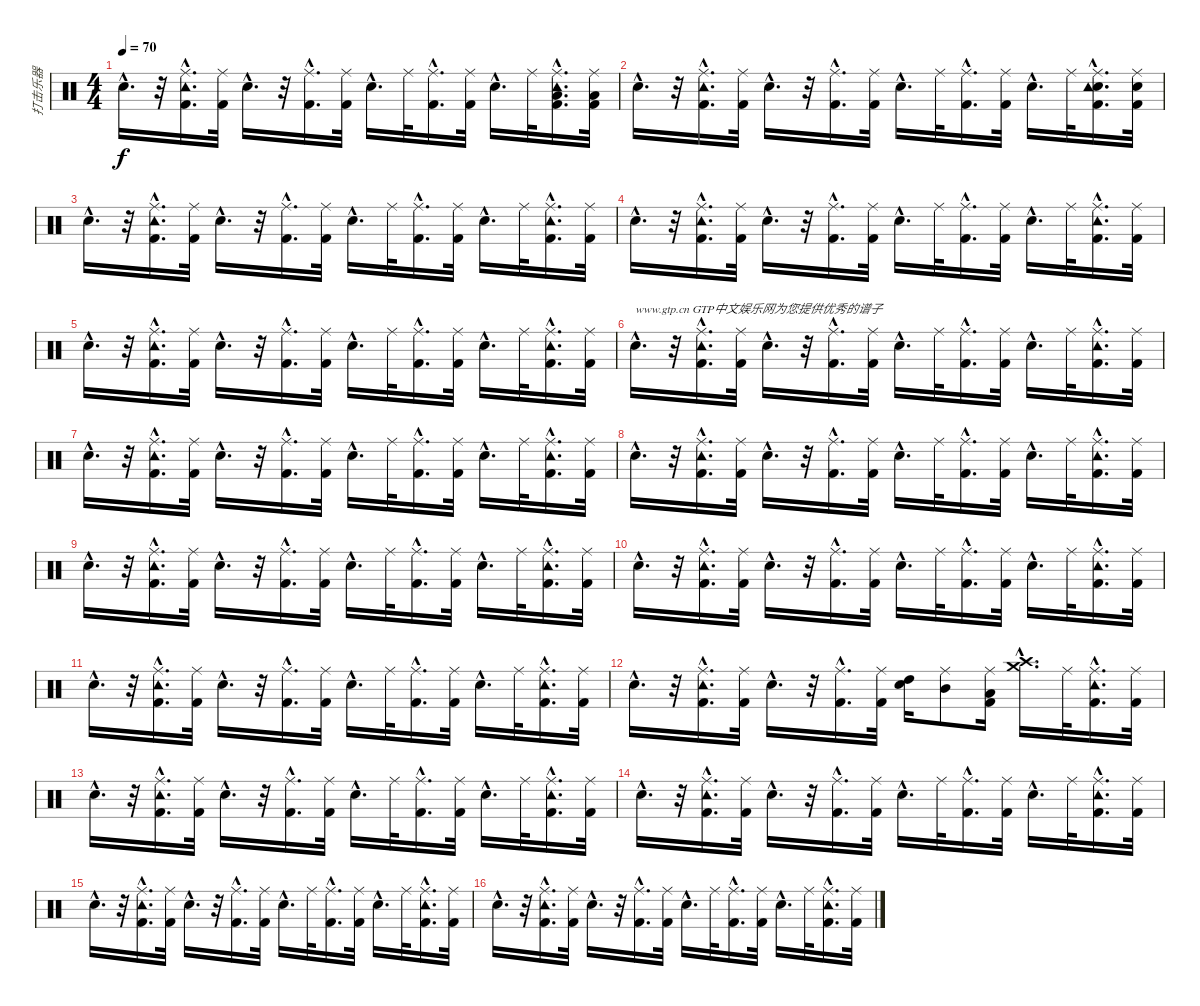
\track ("打击乐器" "打击乐器") {instrument percussion}
\staff {score}
\articulation defaults
\ts (4 4)
\tempo 70
\clef neutral
\ks c "Electric Snare (hit)"{hac}.16{d dy f}
r.32 ("Tambourine (hit)"{hac} "Ride (middle)"{hac} "Kick (hit) 2"{hac}).16{d} ("Ride (middle)" "Kick (hit) 2").32 "Snare (hit) 2"{hac}.16{d} r.32 ("Ride (middle)"{hac} "Kick (hit) 2"{hac}).16{d} ("Ride (middle)" "Kick (hit) 2").32 "Snare (hit) 2"{hac}.16{d} "Ride (middle)".32 ("Ride (middle)"{hac} "Kick (hit) 2"{hac}).16{d} ("Ride (middle)" "Kick (hit) 2").32 "Snare (hit) 2"{hac}.16{d} "Ride (middle)".32 ("Low Floor Tom (hit)"{hac} "Tambourine (hit)"{hac} "Ride (middle)"{hac} "Kick (hit) 2"{hac}).16{d} ("Low Floor Tom (hit)" "Ride (middle)" "Kick (hit) 2").32 |
"Electric Snare (hit)"{hac}.16{d} r.32 ("Tambourine (hit)"{hac} "Ride (middle)"{hac} "Kick (hit) 2"{hac}).16{d} ("Ride (middle)" "Kick (hit) 2").32 "Snare (hit) 2"{hac}.16{d} r.32 ("Ride (middle)"{hac} "Kick (hit) 2"{hac}).16{d} ("Ride (middle)" "Kick (hit) 2").32 "Snare (hit) 2"{hac}.16{d} "Ride (middle)".32 ("Ride (middle)"{hac} "Kick (hit) 2"{hac}).16{d} ("Ride (middle)" "Kick (hit) 2").32 "Snare (hit) 2"{hac}.16{d} "Ride (middle)".32 ("Electric Snare (hit)"{hac} "Tambourine (hit)"{hac} "Ride (middle)"{hac} "Kick (hit) 2"{hac}).16{d} ("Electric Snare (hit)" "Ride (middle)" "Kick (hit) 2").32 |
"Electric Snare (hit)"{hac}.16{d} r.32 ("Tambourine (hit)"{hac} "Ride (middle)"{hac} "Kick (hit) 2"{hac}).16{d} ("Ride (middle)" "Kick (hit) 2").32 "Snare (hit) 2"{hac}.16{d} r.32 ("Ride (middle)"{hac} "Kick (hit) 2"{hac}).16{d} ("Ride (middle)" "Kick (hit) 2").32 "Snare (hit) 2"{hac}.16{d} "Ride (middle)".32 ("Ride (middle)"{hac} "Kick (hit) 2"{hac}).16{d} ("Ride (middle)" "Kick (hit) 2").32 "Snare (hit) 2"{hac}.16{d} "Ride (middle)".32 ("Tambourine (hit)"{hac} "Ride (middle)"{hac} "Kick (hit) 2"{hac}).16{d} ("Ride (middle)" "Kick (hit) 2").32 |
"Electric Snare (hit)"{hac}.16{d} r.32 ("Tambourine (hit)"{hac} "Ride (middle)"{hac} "Kick (hit) 2"{hac}).16{d} ("Ride (middle)" "Kick (hit) 2").32 "Snare (hit) 2"{hac}.16{d} r.32 ("Ride (middle)"{hac} "Kick (hit) 2"{hac}).16{d} ("Ride (middle)" "Kick (hit) 2").32 "Snare (hit) 2"{hac}.16{d} "Ride (middle)".32 ("Ride (middle)"{hac} "Kick (hit) 2"{hac}).16{d} ("Ride (middle)" "Kick (hit) 2").32 "Snare (hit) 2"{hac}.16{d} "Ride (middle)".32 ("Tambourine (hit)"{hac} "Ride (middle)"{hac} "Kick (hit) 2"{hac}).16{d} ("Ride (middle)" "Kick (hit) 2").32 |
"Electric Snare (hit)"{hac}.16{d} r.32 ("Tambourine (hit)"{hac} "Ride (middle)"{hac} "Kick (hit) 2"{hac}).16{d} ("Ride (middle)" "Kick (hit) 2").32 "Snare (hit) 2"{hac}.16{d} r.32 ("Ride (middle)"{hac} "Kick (hit) 2"{hac}).16{d} ("Ride (middle)" "Kick (hit) 2").32 "Snare (hit) 2"{hac}.16{d} "Ride (middle)".32 ("Ride (middle)"{hac} "Kick (hit) 2"{hac}).16{d} ("Ride (middle)" "Kick (hit) 2").32 "Snare (hit) 2"{hac}.16{d} "Ride (middle)".32 ("Tambourine (hit)"{hac} "Ride (middle)"{hac} "Kick (hit) 2"{hac}).16{d} ("Ride (middle)" "Kick (hit) 2").32 |
"Electric Snare (hit)"{hac}.16{d txt "www.gtp.cn GTP中文娱乐网为您提供优秀的谱子"} r.32 ("Tambourine (hit)"{hac} "Ride (middle)"{hac} "Kick (hit) 2"{hac}).16{d} ("Ride (middle)" "Kick (hit) 2").32 "Snare (hit) 2"{hac}.16{d} r.32 ("Ride (middle)"{hac} "Kick (hit) 2"{hac}).16{d} ("Ride (middle)" "Kick (hit) 2").32 "Snare (hit) 2"{hac}.16{d} "Ride (middle)".32 ("Ride (middle)"{hac} "Kick (hit) 2"{hac}).16{d} ("Ride (middle)" "Kick (hit) 2").32 "Snare (hit) 2"{hac}.16{d} "Ride (middle)".32 ("Tambourine (hit)"{hac} "Ride (middle)"{hac} "Kick (hit) 2"{hac}).16{d} ("Ride (middle)" "Kick (hit) 2").32 |
"Electric Snare (hit)"{hac}.16{d} r.32 ("Tambourine (hit)"{hac} "Ride (middle)"{hac} "Kick (hit) 2"{hac}).16{d} ("Ride (middle)" "Kick (hit) 2").32 "Snare (hit) 2"{hac}.16{d} r.32 ("Ride (middle)"{hac} "Kick (hit) 2"{hac}).16{d} ("Ride (middle)" "Kick (hit) 2").32 "Snare (hit) 2"{hac}.16{d} "Ride (middle)".32 ("Ride (middle)"{hac} "Kick (hit) 2"{hac}).16{d} ("Ride (middle)" "Kick (hit) 2").32 "Snare (hit) 2"{hac}.16{d} "Ride (middle)".32 ("Tambourine (hit)"{hac} "Ride (middle)"{hac} "Kick (hit) 2"{hac}).16{d} ("Ride (middle)" "Kick (hit) 2").32 |
"Electric Snare (hit)"{hac}.16{d} r.32 ("Tambourine (hit)"{hac} "Ride (middle)"{hac} "Kick (hit) 2"{hac}).16{d} ("Ride (middle)" "Kick (hit) 2").32 "Snare (hit) 2"{hac}.16{d} r.32 ("Ride (middle)"{hac} "Kick (hit) 2"{hac}).16{d} ("Ride (middle)" "Kick (hit) 2").32 "Snare (hit) 2"{hac}.16{d} "Ride (middle)".32 ("Ride (middle)"{hac} "Kick (hit) 2"{hac}).16{d} ("Ride (middle)" "Kick (hit) 2").32 "Snare (hit) 2"{hac}.16{d} "Ride (middle)".32 ("Tambourine (hit)"{hac} "Ride (middle)"{hac} "Kick (hit) 2"{hac}).16{d} ("Ride (middle)" "Kick (hit) 2").32 |
"Electric Snare (hit)"{hac}.16{d} r.32 ("Tambourine (hit)"{hac} "Ride (middle)"{hac} "Kick (hit) 2"{hac}).16{d} ("Ride (middle)" "Kick (hit) 2").32 "Snare (hit) 2"{hac}.16{d} r.32 ("Ride (middle)"{hac} "Kick (hit) 2"{hac}).16{d} ("Ride (middle)" "Kick (hit) 2").32 "Snare (hit) 2"{hac}.16{d} "Ride (middle)".32 ("Ride (middle)"{hac} "Kick (hit) 2"{hac}).16{d} ("Ride (middle)" "Kick (hit) 2").32 "Snare (hit) 2"{hac}.16{d} "Ride (middle)".32 ("Tambourine (hit)"{hac} "Ride (middle)"{hac} "Kick (hit) 2"{hac}).16{d} ("Ride (middle)" "Kick (hit) 2").32 |
"Electric Snare (hit)"{hac}.16{d} r.32 ("Tambourine (hit)"{hac} "Ride (middle)"{hac} "Kick (hit) 2"{hac}).16{d} ("Ride (middle)" "Kick (hit) 2").32 "Snare (hit) 2"{hac}.16{d} r.32 ("Ride (middle)"{hac} "Kick (hit) 2"{hac}).16{d} ("Ride (middle)" "Kick (hit) 2").32 "Snare (hit) 2"{hac}.16{d} "Ride (middle)".32 ("Ride (middle)"{hac} "Kick (hit) 2"{hac}).16{d} ("Ride (middle)" "Kick (hit) 2").32 "Snare (hit) 2"{hac}.16{d} "Ride (middle)".32 ("Tambourine (hit)"{hac} "Ride (middle)"{hac} "Kick (hit) 2"{hac}).16{d} ("Ride (middle)" "Kick (hit) 2").32 |
"Electric Snare (hit)"{hac}.16{d} r.32 ("Tambourine (hit)"{hac} "Ride (middle)"{hac} "Kick (hit) 2"{hac}).16{d} ("Ride (middle)" "Kick (hit) 2").32 "Snare (hit) 2"{hac}.16{d} r.32 ("Ride (middle)"{hac} "Kick (hit) 2"{hac}).16{d} ("Ride (middle)" "Kick (hit) 2").32 "Snare (hit) 2"{hac}.16{d} "Ride (middle)".32 ("Ride (middle)"{hac} "Kick (hit) 2"{hac}).16{d} ("Ride (middle)" "Kick (hit) 2").32 "Snare (hit) 2"{hac}.16{d} "Ride (middle)".32 ("Tambourine (hit)"{hac} "Ride (middle)"{hac} "Kick (hit) 2"{hac}).16{d} ("Ride (middle)" "Kick (hit) 2").32 |
"Electric Snare (hit)"{hac}.16{d} r.32 ("Tambourine (hit)"{hac} "Ride (middle)"{hac} "Kick (hit) 2"{hac}).16{d} ("Ride (middle)" "Kick (hit) 2").32 "Snare (hit) 2"{hac}.16{d} r.32 ("Ride (middle)"{hac} "Kick (hit) 2"{hac}).16{d} ("Ride (middle)" "Kick (hit) 2").32 ("Snare (hit) 2" "High Tom (hit)").16 ("Mid Tom (hit)" "Ride (middle)").8 ("Low Tom (hit)" "Ride (middle)" "Kick (hit) 2").16 ("Crash medium (hit)"{hac} "Crash high (hit)"{hac}).16{d} "Ride (middle)".32 ("Tambourine (hit)"{hac} "Ride (middle)"{hac} "Kick (hit) 2"{hac}).16{d} ("Ride (middle)" "Kick (hit) 2").32 |
"Electric Snare (hit)"{hac}.16{d} r.32 ("Tambourine (hit)"{hac} "Ride (middle)"{hac} "Kick (hit) 2"{hac}).16{d} ("Ride (middle)" "Kick (hit) 2").32 "Snare (hit) 2"{hac}.16{d} r.32 ("Ride (middle)"{hac} "Kick (hit) 2"{hac}).16{d} ("Ride (middle)" "Kick (hit) 2").32 "Snare (hit) 2"{hac}.16{d} "Ride (middle)".32 ("Ride (middle)"{hac} "Kick (hit) 2"{hac}).16{d} ("Ride (middle)" "Kick (hit) 2").32 "Snare (hit) 2"{hac}.16{d} "Ride (middle)".32 ("Tambourine (hit)"{hac} "Ride (middle)"{hac} "Kick (hit) 2"{hac}).16{d} ("Ride (middle)" "Kick (hit) 2").32 |
"Electric Snare (hit)"{hac}.16{d} r.32 ("Tambourine (hit)"{hac} "Ride (middle)"{hac} "Kick (hit) 2"{hac}).16{d} ("Ride (middle)" "Kick (hit) 2").32 "Snare (hit) 2"{hac}.16{d} r.32 ("Ride (middle)"{hac} "Kick (hit) 2"{hac}).16{d} ("Ride (middle)" "Kick (hit) 2").32 "Snare (hit) 2"{hac}.16{d} "Ride (middle)".32 ("Ride (middle)"{hac} "Kick (hit) 2"{hac}).16{d} ("Ride (middle)" "Kick (hit) 2").32 "Snare (hit) 2"{hac}.16{d} "Ride (middle)".32 ("Tambourine (hit)"{hac} "Ride (middle)"{hac} "Kick (hit) 2"{hac}).16{d} ("Ride (middle)" "Kick (hit) 2").32 |
"Electric Snare (hit)"{hac}.16{d} r.32 ("Tambourine (hit)"{hac} "Ride (middle)"{hac} "Kick (hit) 2"{hac}).16{d} ("Ride (middle)" "Kick (hit) 2").32 "Snare (hit) 2"{hac}.16{d} r.32 ("Ride (middle)"{hac} "Kick (hit) 2"{hac}).16{d} ("Ride (middle)" "Kick (hit) 2").32 "Snare (hit) 2"{hac}.16{d} "Ride (middle)".32 ("Ride (middle)"{hac} "Kick (hit) 2"{hac}).16{d} ("Ride (middle)" "Kick (hit) 2").32 "Snare (hit) 2"{hac}.16{d} "Ride (middle)".32 ("Tambourine (hit)"{hac} "Ride (middle)"{hac} "Kick (hit) 2"{hac}).16{d} ("Ride (middle)" "Kick (hit) 2").32 |
"Electric Snare (hit)"{hac}.16{d} r.32 ("Tambourine (hit)"{hac} "Ride (middle)"{hac} "Kick (hit) 2"{hac}).16{d} ("Ride (middle)" "Kick (hit) 2").32 "Snare (hit) 2"{hac}.16{d} r.32 ("Ride (middle)"{hac} "Kick (hit) 2"{hac}).16{d} ("Ride (middle)" "Kick (hit) 2").32 "Snare (hit) 2"{hac}.16{d} "Ride (middle)".32 ("Ride (middle)"{hac} "Kick (hit) 2"{hac}).16{d} ("Ride (middle)" "Kick (hit) 2").32 "Snare (hit) 2"{hac}.16{d} "Ride (middle)".32 ("Tambourine (hit)"{hac} "Ride (middle)"{hac} "Kick (hit) 2"{hac}).16{d} ("Ride (middle)" "Kick (hit) 2").32
